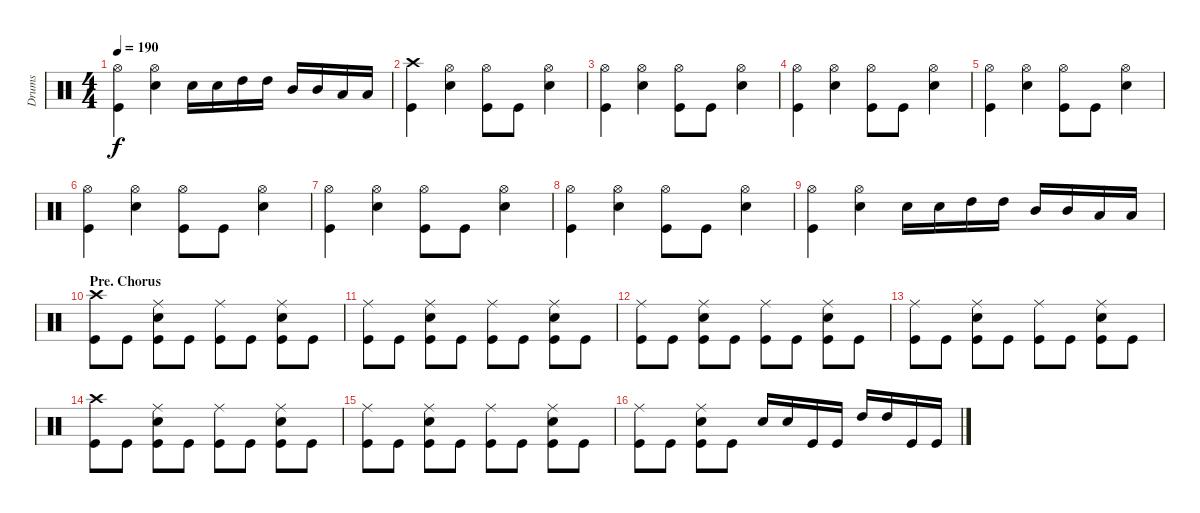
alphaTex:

\track ("Drums" "Drums") {instrument percussion}
\staff {score}
\articulation defaults
\ts (4 4)
\tempo 190
\clef neutral
\ks c
("Hi-Hat (open)" "Kick (hit)").4{dy f} ("Hi-Hat (open)" "Electric Snare (hit)").4 "Electric Snare (hit)".16 "Electric Snare (hit)".16 "High Tom (hit)".16 "High Tom (hit)".16 "Mid Tom (hit)".16 "Mid Tom (hit)".16 "Low Tom (hit)".16 "Low Tom (hit)".16 |
("Crash high (hit)" "Kick (hit)").4 ("Hi-Hat (open)" "Electric Snare (hit)").4 ("Hi-Hat (open)" "Kick (hit)").8 "Kick (hit)".8 ("Hi-Hat (open)" "Electric Snare (hit)").4 |
("Hi-Hat (open)" "Kick (hit)").4 ("Hi-Hat (open)" "Electric Snare (hit)").4 ("Hi-Hat (open)" "Kick (hit)").8 "Kick (hit)".8 ("Hi-Hat (open)" "Electric Snare (hit)").4 |
("Hi-Hat (open)" "Kick (hit)").4 ("Hi-Hat (open)" "Electric Snare (hit)").4 ("Hi-Hat (open)" "Kick (hit)").8 "Kick (hit)".8 ("Hi-Hat (open)" "Electric Snare (hit)").4 |
("Hi-Hat (open)" "Kick (hit)").4 ("Hi-Hat (open)" "Electric Snare (hit)").4 ("Hi-Hat (open)" "Kick (hit)").8 "Kick (hit)".8 ("Hi-Hat (open)" "Electric Snare (hit)").4 |
("Hi-Hat (open)" "Kick (hit)").4 ("Hi-Hat (open)" "Electric Snare (hit)").4 ("Hi-Hat (open)" "Kick (hit)").8 "Kick (hit)".8 ("Hi-Hat (open)" "Electric Snare (hit)").4 |
("Hi-Hat (open)" "Kick (hit)").4 ("Hi-Hat (open)" "Electric Snare (hit)").4 ("Hi-Hat (open)" "Kick (hit)").8 "Kick (hit)".8 ("Hi-Hat (open)" "Electric Snare (hit)").4 |
("Hi-Hat (open)" "Kick (hit)").4 ("Hi-Hat (open)" "Electric Snare (hit)").4 ("Hi-Hat (open)" "Kick (hit)").8 "Kick (hit)".8 ("Hi-Hat (open)" "Electric Snare (hit)").4 |
("Hi-Hat (open)" "Kick (hit)").4 ("Hi-Hat (open)" "Electric Snare (hit)").4 "Electric Snare (hit)".16 "Electric Snare (hit)".16 "High Tom (hit)".16 "High Tom (hit)".16 "Mid Tom (hit)".16 "Mid Tom (hit)".16 "Low Tom (hit)".16 "Low Tom (hit)".16 |
\section ("" "Pre. Chorus")
("Crash high (hit)" "Kick (hit)").8 "Kick (hit)".8 ("Ride (middle)" "Electric Snare (hit)" "Kick (hit)").8 "Kick (hit)".8 ("Ride (middle)" "Kick (hit)").8 "Kick (hit)".8 ("Ride (middle)" "Electric Snare (hit)" "Kick (hit)").8 "Kick (hit)".8 |
("Ride (middle)" "Kick (hit)").8 "Kick (hit)".8 ("Ride (middle)" "Electric Snare (hit)" "Kick (hit)").8 "Kick (hit)".8 ("Ride (middle)" "Kick (hit)").8 "Kick (hit)".8 ("Ride (middle)" "Electric Snare (hit)" "Kick (hit)").8 "Kick (hit)".8 |
("Ride (middle)" "Kick (hit)").8 "Kick (hit)".8 ("Ride (middle)" "Electric Snare (hit)" "Kick (hit)").8 "Kick (hit)".8 ("Ride (middle)" "Kick (hit)").8 "Kick (hit)".8 ("Ride (middle)" "Electric Snare (hit)" "Kick (hit)").8 "Kick (hit)".8 |
("Ride (middle)" "Kick (hit)").8 "Kick (hit)".8 ("Ride (middle)" "Electric Snare (hit)" "Kick (hit)").8 "Kick (hit)".8 ("Ride (middle)" "Kick (hit)").8 "Kick (hit)".8 ("Ride (middle)" "Electric Snare (hit)" "Kick (hit)").8 "Kick (hit)".8 |
("Crash high (hit)" "Kick (hit)").8 "Kick (hit)".8 ("Ride (middle)" "Electric Snare (hit)" "Kick (hit)").8 "Kick (hit)".8 ("Ride (middle)" "Kick (hit)").8 "Kick (hit)".8 ("Ride (middle)" "Electric Snare (hit)" "Kick (hit)").8 "Kick (hit)".8 |
("Ride (middle)" "Kick (hit)").8 "Kick (hit)".8 ("Ride (middle)" "Electric Snare (hit)" "Kick (hit)").8 "Kick (hit)".8 ("Ride (middle)" "Kick (hit)").8 "Kick (hit)".8 ("Ride (middle)" "Electric Snare (hit)" "Kick (hit)").8 "Kick (hit)".8 |
("Ride (middle)" "Kick (hit)").8 "Kick (hit)".8 ("Ride (middle)" "Electric Snare (hit)" "Kick (hit)").8 "Kick (hit)".8 "Electric Snare (hit)".16 "Electric Snare (hit)".16 "Kick (hit)".16 "Kick (hit)".16 "High Tom (hit)".16 "High Tom (hit)".16 "Kick (hit)".16 "Kick (hit)".16
